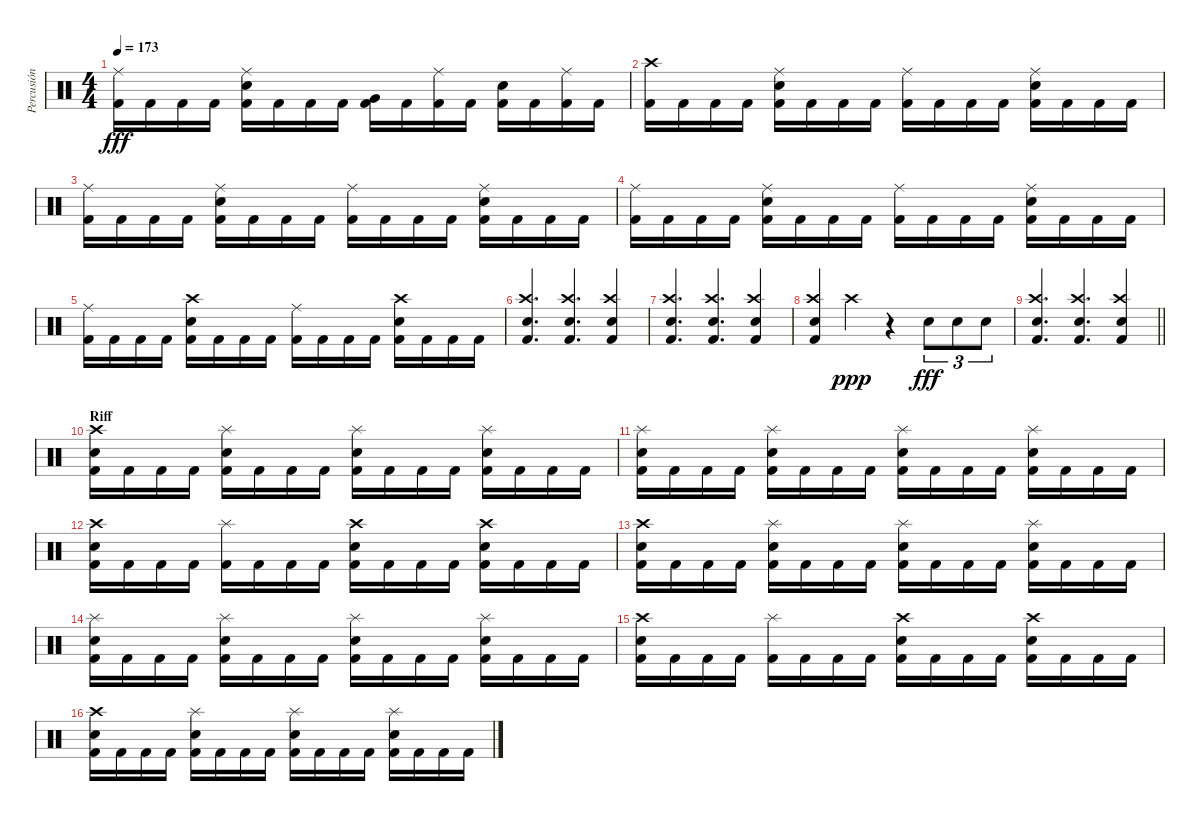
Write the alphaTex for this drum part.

\track ("Percusión" "Percusión") {instrument percussion}
\staff {score}
\articulation defaults
\ts (4 4)
\tempo 173
\clef neutral
\ks c
("Ride (middle)" "Kick (hit) 2").16{dy fff} "Kick (hit) 2".16 "Kick (hit) 2".16 "Kick (hit) 2".16 ("Ride (middle)" "Electric Snare (hit)" "Kick (hit) 2").16 "Kick (hit) 2".16 "Kick (hit) 2".16 "Kick (hit) 2".16 ("Very Low Tom (hit)" "Kick (hit) 2").16 "Kick (hit) 2".16 ("Ride (middle)" "Kick (hit) 2").16 "Kick (hit) 2".16 ("Electric Snare (hit)" "Kick (hit) 2").16 "Kick (hit) 2".16 ("Ride (middle)" "Kick (hit) 2").16 "Kick (hit) 2".16 |
("Crash high (hit)" "Kick (hit) 2").16 "Kick (hit) 2".16 "Kick (hit) 2".16 "Kick (hit) 2".16 ("Ride (middle)" "Electric Snare (hit)" "Kick (hit) 2").16 "Kick (hit) 2".16 "Kick (hit) 2".16 "Kick (hit) 2".16 ("Ride (middle)" "Kick (hit) 2").16 "Kick (hit) 2".16 "Kick (hit) 2".16 "Kick (hit) 2".16 ("Ride (middle)" "Electric Snare (hit)" "Kick (hit) 2").16 "Kick (hit) 2".16 "Kick (hit) 2".16 "Kick (hit) 2".16 |
("Ride (middle)" "Kick (hit) 2").16 "Kick (hit) 2".16 "Kick (hit) 2".16 "Kick (hit) 2".16 ("Ride (middle)" "Electric Snare (hit)" "Kick (hit) 2").16 "Kick (hit) 2".16 "Kick (hit) 2".16 "Kick (hit) 2".16 ("Ride (middle)" "Kick (hit) 2").16 "Kick (hit) 2".16 "Kick (hit) 2".16 "Kick (hit) 2".16 ("Ride (middle)" "Electric Snare (hit)" "Kick (hit) 2").16 "Kick (hit) 2".16 "Kick (hit) 2".16 "Kick (hit) 2".16 |
("Ride (middle)" "Kick (hit) 2").16 "Kick (hit) 2".16 "Kick (hit) 2".16 "Kick (hit) 2".16 ("Ride (middle)" "Electric Snare (hit)" "Kick (hit) 2").16 "Kick (hit) 2".16 "Kick (hit) 2".16 "Kick (hit) 2".16 ("Ride (middle)" "Kick (hit) 2").16 "Kick (hit) 2".16 "Kick (hit) 2".16 "Kick (hit) 2".16 ("Ride (middle)" "Electric Snare (hit)" "Kick (hit) 2").16 "Kick (hit) 2".16 "Kick (hit) 2".16 "Kick (hit) 2".16 |
("Ride (middle)" "Kick (hit) 2").16 "Kick (hit) 2".16 "Kick (hit) 2".16 "Kick (hit) 2".16 ("Crash high (hit)" "Electric Snare (hit)" "Kick (hit) 2").16 "Kick (hit) 2".16 "Kick (hit) 2".16 "Kick (hit) 2".16 ("Ride (middle)" "Kick (hit) 2").16 "Kick (hit) 2".16 "Kick (hit) 2".16 "Kick (hit) 2".16 ("Crash high (hit)" "Electric Snare (hit)" "Kick (hit) 2").16 "Kick (hit) 2".16 "Kick (hit) 2".16 "Kick (hit) 2".16 |
("Crash high (hit)" "Snare (hit) 2" "Kick (hit) 2").4{d} ("Crash high (hit)" "Snare (hit) 2" "Kick (hit) 2").4{d} ("Crash high (hit)" "Snare (hit) 2" "Kick (hit) 2").4 |
("Crash high (hit)" "Snare (hit) 2" "Kick (hit) 2").4{d} ("Crash high (hit)" "Snare (hit) 2" "Kick (hit) 2").4{d} ("Crash high (hit)" "Snare (hit) 2" "Kick (hit) 2").4 |
("Crash high (hit)" "Snare (hit) 2" "Kick (hit) 2").4 "Crash high (hit)".4{dy ppp} r.4 "Snare (hit) 2".8{tu (3 2) dy fff} "Snare (hit) 2".8{tu (3 2)} "Snare (hit) 2".8{tu (3 2)} |
\barLineRight lightlight
("Crash high (hit)" "Snare (hit) 2" "Kick (hit) 2").4{d} ("Crash high (hit)" "Snare (hit) 2" "Kick (hit) 2").4{d} ("Crash high (hit)" "Snare (hit) 2" "Kick (hit) 2").4 |
\section ("" "Riff")
("Crash high (hit)" "Electric Snare (hit)" "Kick (hit) 2").16 "Kick (hit) 2".16 "Kick (hit) 2".16 "Kick (hit) 2".16 ("Splash (hit)" "Electric Snare (hit)" "Kick (hit) 2").16 "Kick (hit) 2".16 "Kick (hit) 2".16 "Kick (hit) 2".16 ("Splash (hit)" "Electric Snare (hit)" "Kick (hit) 2").16 "Kick (hit) 2".16 "Kick (hit) 2".16 "Kick (hit) 2".16 ("Splash (hit)" "Electric Snare (hit)" "Kick (hit) 2").16 "Kick (hit) 2".16 "Kick (hit) 2".16 "Kick (hit) 2".16 |
("Splash (hit)" "Electric Snare (hit)" "Kick (hit) 2").16 "Kick (hit) 2".16 "Kick (hit) 2".16 "Kick (hit) 2".16 ("Splash (hit)" "Electric Snare (hit)" "Kick (hit) 2").16 "Kick (hit) 2".16 "Kick (hit) 2".16 "Kick (hit) 2".16 ("Splash (hit)" "Electric Snare (hit)" "Kick (hit) 2").16 "Kick (hit) 2".16 "Kick (hit) 2".16 "Kick (hit) 2".16 ("Splash (hit)" "Electric Snare (hit)" "Kick (hit) 2").16 "Kick (hit) 2".16 "Kick (hit) 2".16 "Kick (hit) 2".16 |
("Crash high (hit)" "Electric Snare (hit)" "Kick (hit) 2").16 "Kick (hit) 2".16 "Kick (hit) 2".16 "Kick (hit) 2".16 ("Splash (hit)" "Kick (hit) 2").16 "Kick (hit) 2".16 "Kick (hit) 2".16 "Kick (hit) 2".16 ("Crash high (hit)" "Electric Snare (hit)" "Kick (hit) 2").16 "Kick (hit) 2".16 "Kick (hit) 2".16 "Kick (hit) 2".16 ("Crash high (hit)" "Electric Snare (hit)" "Kick (hit) 2").16 "Kick (hit) 2".16 "Kick (hit) 2".16 "Kick (hit) 2".16 |
("Crash high (hit)" "Electric Snare (hit)" "Kick (hit) 2").16 "Kick (hit) 2".16 "Kick (hit) 2".16 "Kick (hit) 2".16 ("Splash (hit)" "Electric Snare (hit)" "Kick (hit) 2").16 "Kick (hit) 2".16 "Kick (hit) 2".16 "Kick (hit) 2".16 ("Splash (hit)" "Electric Snare (hit)" "Kick (hit) 2").16 "Kick (hit) 2".16 "Kick (hit) 2".16 "Kick (hit) 2".16 ("Splash (hit)" "Electric Snare (hit)" "Kick (hit) 2").16 "Kick (hit) 2".16 "Kick (hit) 2".16 "Kick (hit) 2".16 |
("Splash (hit)" "Electric Snare (hit)" "Kick (hit) 2").16 "Kick (hit) 2".16 "Kick (hit) 2".16 "Kick (hit) 2".16 ("Splash (hit)" "Electric Snare (hit)" "Kick (hit) 2").16 "Kick (hit) 2".16 "Kick (hit) 2".16 "Kick (hit) 2".16 ("Splash (hit)" "Electric Snare (hit)" "Kick (hit) 2").16 "Kick (hit) 2".16 "Kick (hit) 2".16 "Kick (hit) 2".16 ("Splash (hit)" "Electric Snare (hit)" "Kick (hit) 2").16 "Kick (hit) 2".16 "Kick (hit) 2".16 "Kick (hit) 2".16 |
("Crash high (hit)" "Electric Snare (hit)" "Kick (hit) 2").16 "Kick (hit) 2".16 "Kick (hit) 2".16 "Kick (hit) 2".16 ("Splash (hit)" "Kick (hit) 2").16 "Kick (hit) 2".16 "Kick (hit) 2".16 "Kick (hit) 2".16 ("Crash high (hit)" "Electric Snare (hit)" "Kick (hit) 2").16 "Kick (hit) 2".16 "Kick (hit) 2".16 "Kick (hit) 2".16 ("Crash high (hit)" "Electric Snare (hit)" "Kick (hit) 2").16 "Kick (hit) 2".16 "Kick (hit) 2".16 "Kick (hit) 2".16 |
("Crash high (hit)" "Electric Snare (hit)" "Kick (hit) 2").16 "Kick (hit) 2".16 "Kick (hit) 2".16 "Kick (hit) 2".16 ("Splash (hit)" "Electric Snare (hit)" "Kick (hit) 2").16 "Kick (hit) 2".16 "Kick (hit) 2".16 "Kick (hit) 2".16 ("Splash (hit)" "Electric Snare (hit)" "Kick (hit) 2").16 "Kick (hit) 2".16 "Kick (hit) 2".16 "Kick (hit) 2".16 ("Splash (hit)" "Electric Snare (hit)" "Kick (hit) 2").16 "Kick (hit) 2".16 "Kick (hit) 2".16 "Kick (hit) 2".16
